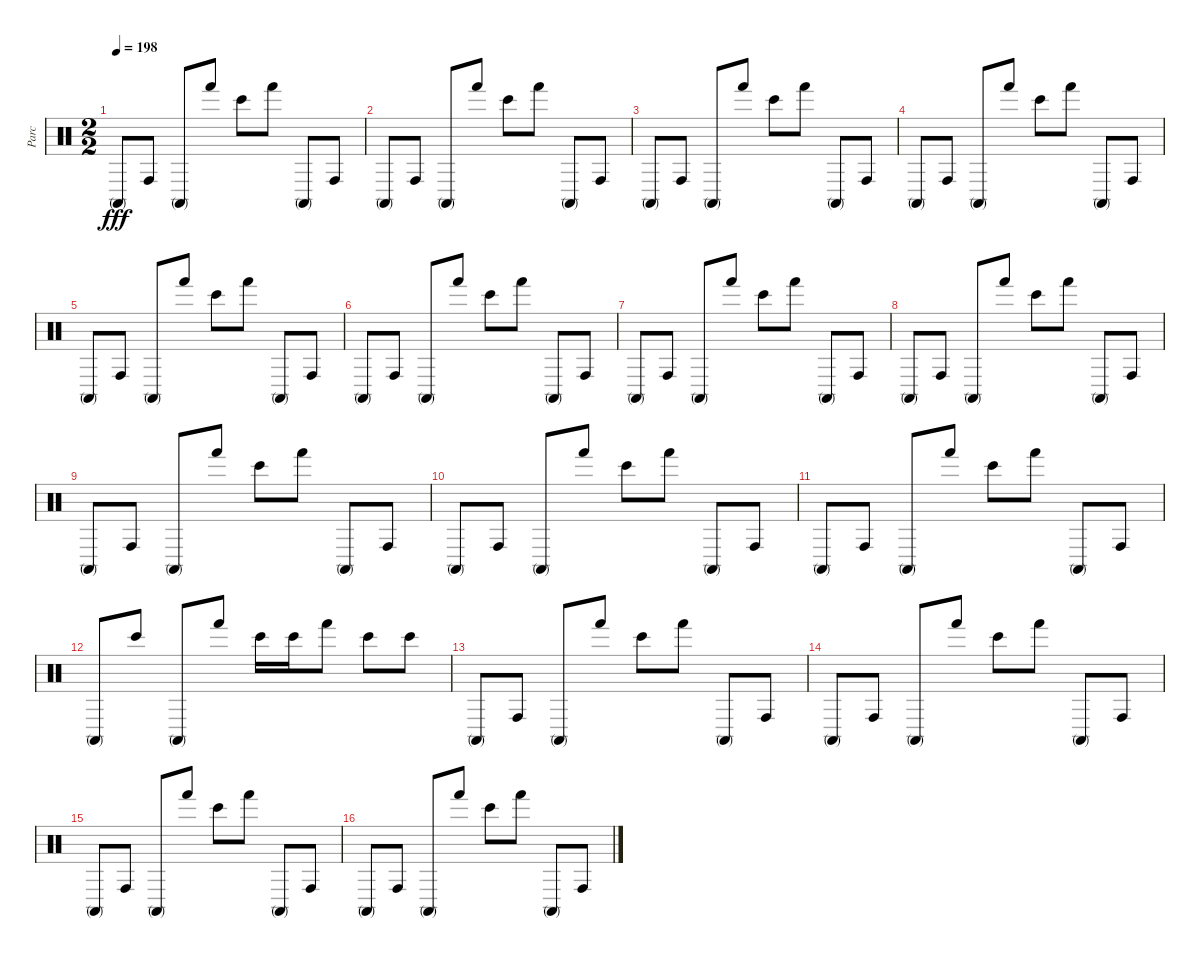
\track ("Parc" "Parc") {instrument percussion}
\staff {score}
\articulation defaults
\ts (2 2)
\tempo 198
\clef neutral
\ks c "Conga high (mute)".8{dy fff} "Conga high (hit)".8 "Conga high (mute)".8 "Hand (hit)".8 "Bongo High (hit)".8 "Hand (hit)".8 "Conga high (mute)".8 "Conga high (hit)".8
|
"Conga high (mute)".8 "Conga high (hit)".8 "Conga high (mute)".8 "Hand (hit)".8 "Bongo High (hit)".8 "Hand (hit)".8 "Conga high (mute)".8 "Conga high (hit)".8 |
"Conga high (mute)".8 "Conga high (hit)".8 "Conga high (mute)".8 "Hand (hit)".8 "Bongo High (hit)".8 "Hand (hit)".8 "Conga high (mute)".8 "Conga high (hit)".8 |
"Conga high (mute)".8 "Conga high (hit)".8 "Conga high (mute)".8 "Hand (hit)".8 "Bongo High (hit)".8 "Hand (hit)".8 "Conga high (mute)".8 "Conga high (hit)".8 |
"Conga high (mute)".8 "Conga high (hit)".8 "Conga high (mute)".8 "Hand (hit)".8 "Bongo High (hit)".8 "Hand (hit)".8 "Conga high (mute)".8 "Conga high (hit)".8 |
"Conga high (mute)".8 "Conga high (hit)".8 "Conga high (mute)".8 "Hand (hit)".8 "Bongo High (hit)".8 "Hand (hit)".8 "Conga high (mute)".8 "Conga high (hit)".8 |
"Conga high (mute)".8 "Conga high (hit)".8 "Conga high (mute)".8 "Hand (hit)".8 "Bongo High (hit)".8 "Hand (hit)".8 "Conga high (mute)".8 "Conga high (hit)".8 |
"Conga high (mute)".8 "Conga high (hit)".8 "Conga high (mute)".8 "Hand (hit)".8 "Bongo High (hit)".8 "Hand (hit)".8 "Conga high (mute)".8 "Conga high (hit)".8 |
"Conga high (mute)".8 "Conga high (hit)".8 "Conga high (mute)".8 "Hand (hit)".8 "Bongo High (hit)".8 "Hand (hit)".8 "Conga high (mute)".8 "Conga high (hit)".8 |
"Conga high (mute)".8 "Conga high (hit)".8 "Conga high (mute)".8 "Hand (hit)".8 "Bongo High (hit)".8 "Hand (hit)".8 "Conga high (mute)".8 "Conga high (hit)".8 |
"Conga high (mute)".8 "Conga high (hit)".8 "Conga high (mute)".8 "Hand (hit)".8 "Bongo High (hit)".8 "Hand (hit)".8 "Conga high (mute)".8 "Conga high (hit)".8 |
"Conga high (mute)".8 "Bongo High (hit)".8 "Conga high (mute)".8 "Hand (hit)".8 "Bongo High (hit)".16 "Bongo High (hit)".16 "Hand (hit)".8 "Bongo High (hit)".8 "Bongo High (hit)".8 |
"Conga high (mute)".8 "Conga high (hit)".8 "Conga high (mute)".8 "Hand (hit)".8 "Bongo High (hit)".8 "Hand (hit)".8 "Conga high (mute)".8 "Conga high (hit)".8 |
"Conga high (mute)".8 "Conga high (hit)".8 "Conga high (mute)".8 "Hand (hit)".8 "Bongo High (hit)".8 "Hand (hit)".8 "Conga high (mute)".8 "Conga high (hit)".8 |
"Conga high (mute)".8 "Conga high (hit)".8 "Conga high (mute)".8 "Hand (hit)".8 "Bongo High (hit)".8 "Hand (hit)".8 "Conga high (mute)".8 "Conga high (hit)".8 |
"Conga high (mute)".8 "Conga high (hit)".8 "Conga high (mute)".8 "Hand (hit)".8 "Bongo High (hit)".8 "Hand (hit)".8 "Conga high (mute)".8 "Conga high (hit)".8
